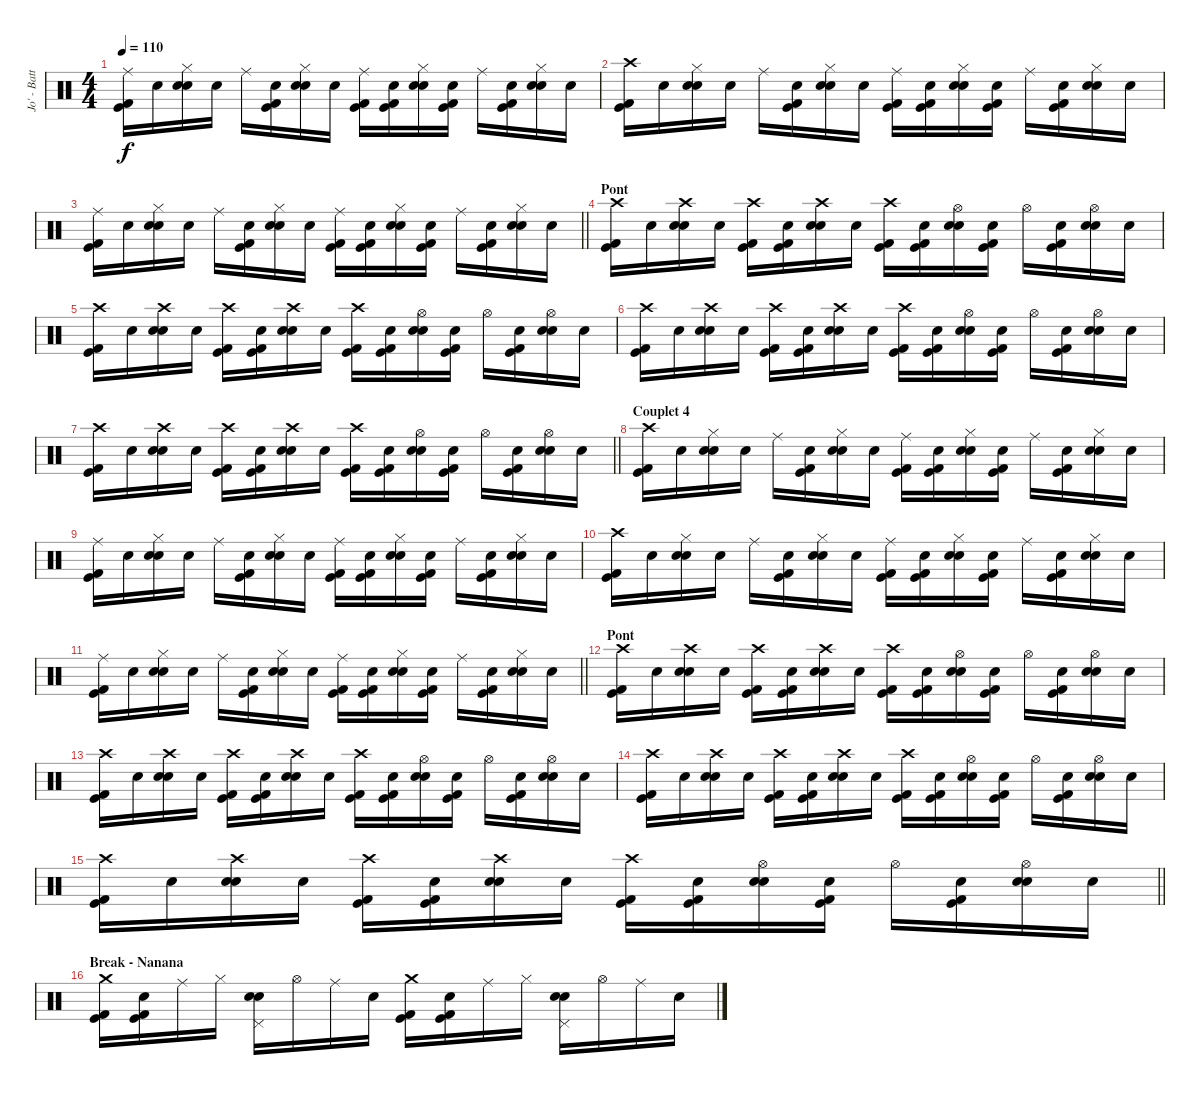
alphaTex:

\track ("Jo' - Batterie" "Jo' - Batt") {instrument percussion}
\staff {score}
\articulation defaults
\ts (4 4)
\tempo 110
\clef neutral
\ks c
("Ride (middle)" "Kick (hit)" "Kick (hit) 2").16{dy f} "Snare (hit)".16 ("Hi-Hat (closed)" "Electric Snare (hit)" "Snare (hit) 2").16 "Snare (hit)".16 "Ride (middle)".16 ("Snare (hit)" "Kick (hit)" "Kick (hit) 2").16 ("Hi-Hat (closed)" "Electric Snare (hit)" "Snare (hit) 2").16 "Snare (hit)".16 ("Ride (middle)" "Kick (hit)" "Kick (hit) 2").16 ("Snare (hit)" "Kick (hit)" "Kick (hit) 2").16 ("Hi-Hat (closed)" "Electric Snare (hit)" "Snare (hit) 2").16 ("Snare (hit)" "Kick (hit)" "Kick (hit) 2").16 "Ride (middle)".16 ("Snare (hit)" "Kick (hit)" "Kick (hit) 2").16 ("Hi-Hat (closed)" "Electric Snare (hit)" "Snare (hit) 2").16 "Snare (hit)".16 |
("Crash high (hit)" "Kick (hit)" "Kick (hit) 2").16 "Snare (hit)".16 ("Hi-Hat (closed)" "Electric Snare (hit)" "Snare (hit) 2").16 "Snare (hit)".16 "Ride (middle)".16 ("Snare (hit)" "Kick (hit)" "Kick (hit) 2").16 ("Hi-Hat (closed)" "Electric Snare (hit)" "Snare (hit) 2").16 "Snare (hit)".16 ("Ride (middle)" "Kick (hit)" "Kick (hit) 2").16 ("Snare (hit)" "Kick (hit)" "Kick (hit) 2").16 ("Hi-Hat (closed)" "Electric Snare (hit)" "Snare (hit) 2").16 ("Snare (hit)" "Kick (hit)" "Kick (hit) 2").16 "Ride (middle)".16 ("Snare (hit)" "Kick (hit)" "Kick (hit) 2").16 ("Hi-Hat (closed)" "Electric Snare (hit)" "Snare (hit) 2").16 "Snare (hit)".16 |
\barLineRight lightlight
("Ride (middle)" "Kick (hit)" "Kick (hit) 2").16 "Snare (hit)".16 ("Hi-Hat (closed)" "Electric Snare (hit)" "Snare (hit) 2").16 "Snare (hit)".16 "Ride (middle)".16 ("Snare (hit)" "Kick (hit)" "Kick (hit) 2").16 ("Hi-Hat (closed)" "Electric Snare (hit)" "Snare (hit) 2").16 "Snare (hit)".16 ("Ride (middle)" "Kick (hit)" "Kick (hit) 2").16 ("Snare (hit)" "Kick (hit)" "Kick (hit) 2").16 ("Hi-Hat (closed)" "Electric Snare (hit)" "Snare (hit) 2").16 ("Snare (hit)" "Kick (hit)" "Kick (hit) 2").16 "Ride (middle)".16 ("Snare (hit)" "Kick (hit)" "Kick (hit) 2").16 ("Hi-Hat (closed)" "Electric Snare (hit)" "Snare (hit) 2").16 "Snare (hit)".16 |
\section ("" "Pont")
("Crash high (hit)" "Kick (hit)" "Kick (hit) 2").16 "Snare (hit)".16 ("Crash high (hit)" "Electric Snare (hit)" "Snare (hit) 2").16 "Snare (hit)".16 ("Crash high (hit)" "Kick (hit)" "Kick (hit) 2").16 ("Snare (hit)" "Kick (hit)" "Kick (hit) 2").16 ("Crash high (hit)" "Electric Snare (hit)" "Snare (hit) 2").16 "Snare (hit)".16 ("Crash high (hit)" "Kick (hit)" "Kick (hit) 2").16 ("Snare (hit)" "Kick (hit)" "Kick (hit) 2").16 ("Hi-Hat (open)" "Electric Snare (hit)" "Snare (hit) 2").16 ("Snare (hit)" "Kick (hit)" "Kick (hit) 2").16 "Hi-Hat (open)".16 ("Snare (hit)" "Kick (hit)" "Kick (hit) 2").16 ("Hi-Hat (open)" "Electric Snare (hit)" "Snare (hit) 2").16 "Snare (hit)".16 |
("Crash high (hit)" "Kick (hit)" "Kick (hit) 2").16 "Snare (hit)".16 ("Crash high (hit)" "Electric Snare (hit)" "Snare (hit) 2").16 "Snare (hit)".16 ("Crash high (hit)" "Kick (hit)" "Kick (hit) 2").16 ("Snare (hit)" "Kick (hit)" "Kick (hit) 2").16 ("Crash high (hit)" "Electric Snare (hit)" "Snare (hit) 2").16 "Snare (hit)".16 ("Crash high (hit)" "Kick (hit)" "Kick (hit) 2").16 ("Snare (hit)" "Kick (hit)" "Kick (hit) 2").16 ("Hi-Hat (open)" "Electric Snare (hit)" "Snare (hit) 2").16 ("Snare (hit)" "Kick (hit)" "Kick (hit) 2").16 "Hi-Hat (open)".16 ("Snare (hit)" "Kick (hit)" "Kick (hit) 2").16 ("Hi-Hat (open)" "Electric Snare (hit)" "Snare (hit) 2").16 "Snare (hit)".16 |
("Crash high (hit)" "Kick (hit)" "Kick (hit) 2").16 "Snare (hit)".16 ("Crash high (hit)" "Electric Snare (hit)" "Snare (hit) 2").16 "Snare (hit)".16 ("Crash high (hit)" "Kick (hit)" "Kick (hit) 2").16 ("Snare (hit)" "Kick (hit)" "Kick (hit) 2").16 ("Crash high (hit)" "Electric Snare (hit)" "Snare (hit) 2").16 "Snare (hit)".16 ("Crash high (hit)" "Kick (hit)" "Kick (hit) 2").16 ("Snare (hit)" "Kick (hit)" "Kick (hit) 2").16 ("Hi-Hat (open)" "Electric Snare (hit)" "Snare (hit) 2").16 ("Snare (hit)" "Kick (hit)" "Kick (hit) 2").16 "Hi-Hat (open)".16 ("Snare (hit)" "Kick (hit)" "Kick (hit) 2").16 ("Hi-Hat (open)" "Electric Snare (hit)" "Snare (hit) 2").16 "Snare (hit)".16 |
\barLineRight lightlight
("Crash high (hit)" "Kick (hit)" "Kick (hit) 2").16 "Snare (hit)".16 ("Crash high (hit)" "Electric Snare (hit)" "Snare (hit) 2").16 "Snare (hit)".16 ("Crash high (hit)" "Kick (hit)" "Kick (hit) 2").16 ("Snare (hit)" "Kick (hit)" "Kick (hit) 2").16 ("Crash high (hit)" "Electric Snare (hit)" "Snare (hit) 2").16 "Snare (hit)".16 ("Crash high (hit)" "Kick (hit)" "Kick (hit) 2").16 ("Snare (hit)" "Kick (hit)" "Kick (hit) 2").16 ("Hi-Hat (open)" "Electric Snare (hit)" "Snare (hit) 2").16 ("Snare (hit)" "Kick (hit)" "Kick (hit) 2").16 "Hi-Hat (open)".16 ("Snare (hit)" "Kick (hit)" "Kick (hit) 2").16 ("Hi-Hat (open)" "Electric Snare (hit)" "Snare (hit) 2").16 "Snare (hit)".16 |
\section ("" "Couplet 4")
("Crash high (hit)" "Kick (hit)" "Kick (hit) 2").16 "Snare (hit)".16 ("Hi-Hat (closed)" "Electric Snare (hit)" "Snare (hit) 2").16 "Snare (hit)".16 "Ride (middle)".16 ("Snare (hit)" "Kick (hit)" "Kick (hit) 2").16 ("Hi-Hat (closed)" "Electric Snare (hit)" "Snare (hit) 2").16 "Snare (hit)".16 ("Ride (middle)" "Kick (hit)" "Kick (hit) 2").16 ("Snare (hit)" "Kick (hit)" "Kick (hit) 2").16 ("Hi-Hat (closed)" "Electric Snare (hit)" "Snare (hit) 2").16 ("Snare (hit)" "Kick (hit)" "Kick (hit) 2").16 "Ride (middle)".16 ("Snare (hit)" "Kick (hit)" "Kick (hit) 2").16 ("Hi-Hat (closed)" "Electric Snare (hit)" "Snare (hit) 2").16 "Snare (hit)".16 |
("Ride (middle)" "Kick (hit)" "Kick (hit) 2").16 "Snare (hit)".16 ("Hi-Hat (closed)" "Electric Snare (hit)" "Snare (hit) 2").16 "Snare (hit)".16 "Ride (middle)".16 ("Snare (hit)" "Kick (hit)" "Kick (hit) 2").16 ("Hi-Hat (closed)" "Electric Snare (hit)" "Snare (hit) 2").16 "Snare (hit)".16 ("Ride (middle)" "Kick (hit)" "Kick (hit) 2").16 ("Snare (hit)" "Kick (hit)" "Kick (hit) 2").16 ("Hi-Hat (closed)" "Electric Snare (hit)" "Snare (hit) 2").16 ("Snare (hit)" "Kick (hit)" "Kick (hit) 2").16 "Ride (middle)".16 ("Snare (hit)" "Kick (hit)" "Kick (hit) 2").16 ("Hi-Hat (closed)" "Electric Snare (hit)" "Snare (hit) 2").16 "Snare (hit)".16 |
("Crash high (hit)" "Kick (hit)" "Kick (hit) 2").16 "Snare (hit)".16 ("Hi-Hat (closed)" "Electric Snare (hit)" "Snare (hit) 2").16 "Snare (hit)".16 "Ride (middle)".16 ("Snare (hit)" "Kick (hit)" "Kick (hit) 2").16 ("Hi-Hat (closed)" "Electric Snare (hit)" "Snare (hit) 2").16 "Snare (hit)".16 ("Ride (middle)" "Kick (hit)" "Kick (hit) 2").16 ("Snare (hit)" "Kick (hit)" "Kick (hit) 2").16 ("Hi-Hat (closed)" "Electric Snare (hit)" "Snare (hit) 2").16 ("Snare (hit)" "Kick (hit)" "Kick (hit) 2").16 "Ride (middle)".16 ("Snare (hit)" "Kick (hit)" "Kick (hit) 2").16 ("Hi-Hat (closed)" "Electric Snare (hit)" "Snare (hit) 2").16 "Snare (hit)".16 |
\barLineRight lightlight
("Ride (middle)" "Kick (hit)" "Kick (hit) 2").16 "Snare (hit)".16 ("Hi-Hat (closed)" "Electric Snare (hit)" "Snare (hit) 2").16 "Snare (hit)".16 "Ride (middle)".16 ("Snare (hit)" "Kick (hit)" "Kick (hit) 2").16 ("Hi-Hat (closed)" "Electric Snare (hit)" "Snare (hit) 2").16 "Snare (hit)".16 ("Ride (middle)" "Kick (hit)" "Kick (hit) 2").16 ("Snare (hit)" "Kick (hit)" "Kick (hit) 2").16 ("Hi-Hat (closed)" "Electric Snare (hit)" "Snare (hit) 2").16 ("Snare (hit)" "Kick (hit)" "Kick (hit) 2").16 "Ride (middle)".16 ("Snare (hit)" "Kick (hit)" "Kick (hit) 2").16 ("Hi-Hat (closed)" "Electric Snare (hit)" "Snare (hit) 2").16 "Snare (hit)".16 |
\section ("" "Pont")
("Crash high (hit)" "Kick (hit)" "Kick (hit) 2").16 "Snare (hit)".16 ("Crash high (hit)" "Electric Snare (hit)" "Snare (hit) 2").16 "Snare (hit)".16 ("Crash high (hit)" "Kick (hit)" "Kick (hit) 2").16 ("Snare (hit)" "Kick (hit)" "Kick (hit) 2").16 ("Crash high (hit)" "Electric Snare (hit)" "Snare (hit) 2").16 "Snare (hit)".16 ("Crash high (hit)" "Kick (hit)" "Kick (hit) 2").16 ("Snare (hit)" "Kick (hit)" "Kick (hit) 2").16 ("Hi-Hat (open)" "Electric Snare (hit)" "Snare (hit) 2").16 ("Snare (hit)" "Kick (hit)" "Kick (hit) 2").16 "Hi-Hat (open)".16 ("Snare (hit)" "Kick (hit)" "Kick (hit) 2").16 ("Hi-Hat (open)" "Electric Snare (hit)" "Snare (hit) 2").16 "Snare (hit)".16 |
("Crash high (hit)" "Kick (hit)" "Kick (hit) 2").16 "Snare (hit)".16 ("Crash high (hit)" "Electric Snare (hit)" "Snare (hit) 2").16 "Snare (hit)".16 ("Crash high (hit)" "Kick (hit)" "Kick (hit) 2").16 ("Snare (hit)" "Kick (hit)" "Kick (hit) 2").16 ("Crash high (hit)" "Electric Snare (hit)" "Snare (hit) 2").16 "Snare (hit)".16 ("Crash high (hit)" "Kick (hit)" "Kick (hit) 2").16 ("Snare (hit)" "Kick (hit)" "Kick (hit) 2").16 ("Hi-Hat (open)" "Electric Snare (hit)" "Snare (hit) 2").16 ("Snare (hit)" "Kick (hit)" "Kick (hit) 2").16 "Hi-Hat (open)".16 ("Snare (hit)" "Kick (hit)" "Kick (hit) 2").16 ("Hi-Hat (open)" "Electric Snare (hit)" "Snare (hit) 2").16 "Snare (hit)".16 |
("Crash high (hit)" "Kick (hit)" "Kick (hit) 2").16 "Snare (hit)".16 ("Crash high (hit)" "Electric Snare (hit)" "Snare (hit) 2").16 "Snare (hit)".16 ("Crash high (hit)" "Kick (hit)" "Kick (hit) 2").16 ("Snare (hit)" "Kick (hit)" "Kick (hit) 2").16 ("Crash high (hit)" "Electric Snare (hit)" "Snare (hit) 2").16 "Snare (hit)".16 ("Crash high (hit)" "Kick (hit)" "Kick (hit) 2").16 ("Snare (hit)" "Kick (hit)" "Kick (hit) 2").16 ("Hi-Hat (open)" "Electric Snare (hit)" "Snare (hit) 2").16 ("Snare (hit)" "Kick (hit)" "Kick (hit) 2").16 "Hi-Hat (open)".16 ("Snare (hit)" "Kick (hit)" "Kick (hit) 2").16 ("Hi-Hat (open)" "Electric Snare (hit)" "Snare (hit) 2").16 "Snare (hit)".16 |
\barLineRight lightlight
("Crash high (hit)" "Kick (hit)" "Kick (hit) 2").16 "Snare (hit)".16 ("Crash high (hit)" "Electric Snare (hit)" "Snare (hit) 2").16 "Snare (hit)".16 ("Crash high (hit)" "Kick (hit)" "Kick (hit) 2").16 ("Snare (hit)" "Kick (hit)" "Kick (hit) 2").16 ("Crash high (hit)" "Electric Snare (hit)" "Snare (hit) 2").16 "Snare (hit)".16 ("Crash high (hit)" "Kick (hit)" "Kick (hit) 2").16 ("Snare (hit)" "Kick (hit)" "Kick (hit) 2").16 ("Hi-Hat (open)" "Electric Snare (hit)" "Snare (hit) 2").16 ("Snare (hit)" "Kick (hit)" "Kick (hit) 2").16 "Hi-Hat (open)".16 ("Snare (hit)" "Kick (hit)" "Kick (hit) 2").16 ("Hi-Hat (open)" "Electric Snare (hit)" "Snare (hit) 2").16 "Snare (hit)".16 |
\section ("" "Break - Nanana")
("Crash medium (hit)" "Kick (hit)" "Kick (hit) 2").16 ("Snare (hit)" "Kick (hit)" "Kick (hit) 2").16 "Ride (middle)".16 "Hi-Hat (closed)".16 ("Pedal Hi-Hat (hit)" "Electric Snare (hit)" "Snare (hit) 2").16 "Hi-Hat (open)".16 "Ride (middle)".16 "Snare (hit)".16 ("Crash medium (hit)" "Kick (hit)" "Kick (hit) 2").16 ("Snare (hit)" "Kick (hit)" "Kick (hit) 2").16 "Ride (middle)".16 "Hi-Hat (closed)".16 ("Pedal Hi-Hat (hit)" "Electric Snare (hit)" "Snare (hit) 2").16 "Hi-Hat (open)".16 "Ride (middle)".16 "Snare (hit)".16
